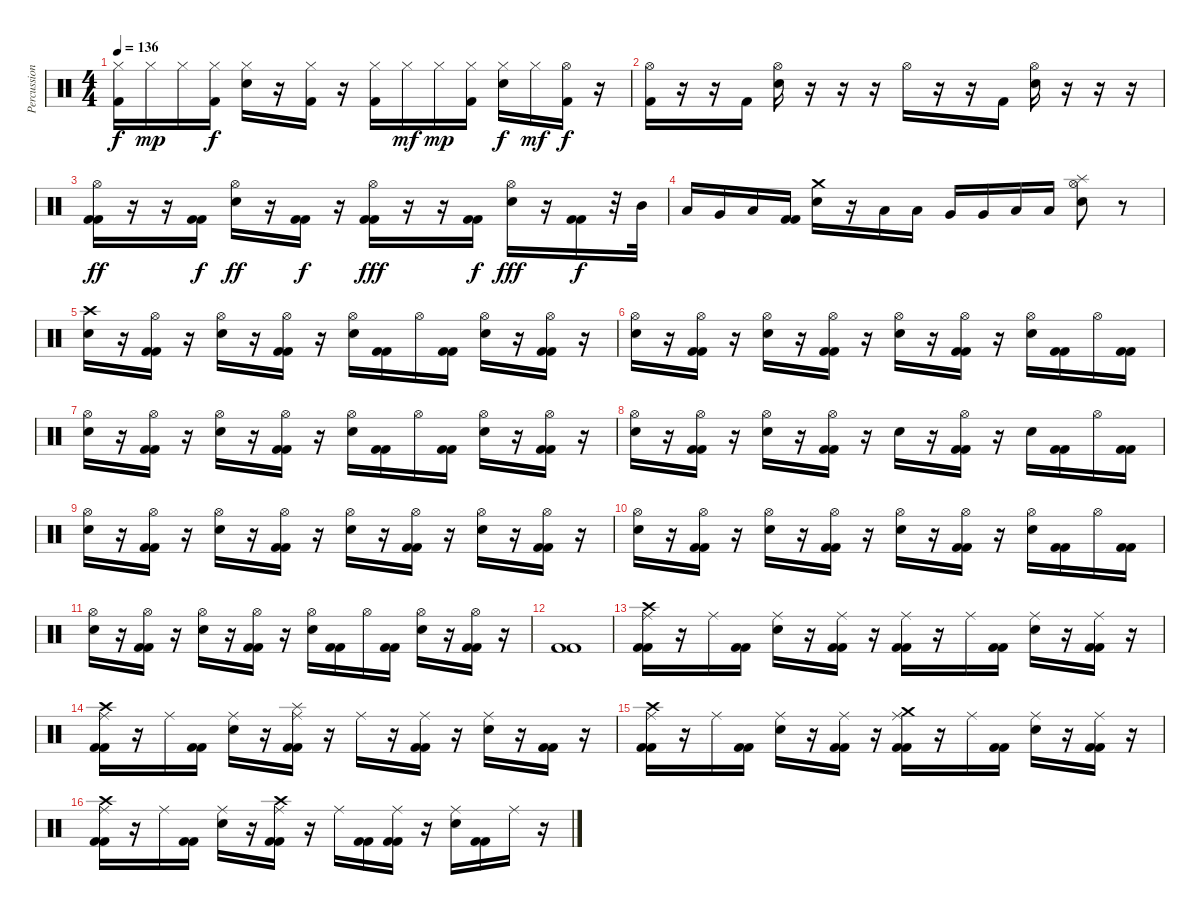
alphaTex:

\track ("Percussion" "Percussion") {instrument percussion}
\staff {score}
\articulation defaults
\ts (4 4)
\tempo 136
\clef neutral
\ks c
("Hi-Hat (closed)" "Kick (hit) 2").16{dy f} "Hi-Hat (closed)".16{dy mp} "Hi-Hat (closed)".16 ("Hi-Hat (closed)" "Kick (hit) 2").16{dy f} ("Hi-Hat (closed)" "Electric Snare (hit)").16 r.16 ("Hi-Hat (closed)" "Kick (hit) 2").16 r.16 ("Hi-Hat (closed)" "Kick (hit) 2").16 "Hi-Hat (closed)".16{dy mf} "Hi-Hat (closed)".16{dy mp} ("Hi-Hat (closed)" "Kick (hit) 2").16 ("Hi-Hat (closed)" "Electric Snare (hit)").16{dy f} "Hi-Hat (closed)".16{dy mf} ("Hi-Hat (open)" "Kick (hit) 2").16{dy f} r.16 |
("Hi-Hat (open)" "Kick (hit) 2").16 r.16 r.16 "Kick (hit) 2".16 ("Hi-Hat (open)" "Electric Snare (hit)").16 r.16 r.16 r.16 "Hi-Hat (open)".16 r.16 r.16 "Kick (hit) 2".16 ("Hi-Hat (open)" "Electric Snare (hit)").16 r.16 r.16 r.16 |
("Hi-Hat (open)" "Kick (hit) 2" "Kick (hit) 2").16{dy ff} r.16 r.16 ("Kick (hit) 2" "Kick (hit) 2").16{dy f} ("Hi-Hat (open)" "Electric Snare (hit)").16{dy ff} r.16 ("Kick (hit) 2" "Kick (hit) 2").16{dy f} r.16 ("Hi-Hat (open)" "Kick (hit) 2" "Kick (hit) 2").16{dy fff} r.16 r.16 ("Kick (hit) 2" "Kick (hit) 2").16{dy f} ("Hi-Hat (open)" "Electric Snare (hit)").16{dy fff} r.16 ("Kick (hit) 2" "Kick (hit) 2").16{dy f} r.32 "Mid Tom (hit)".32 |
"Low Tom (hit)".16 "Very Low Tom (hit)".16 "Low Floor Tom (hit)".16 ("Kick (hit) 2" "Kick (hit) 2").16 ("Crash medium (hit)" "Electric Snare (hit)").16 r.16 "Low Tom (hit)".16 "Low Tom (hit)".16 "Very Low Tom (hit)".16 "Very Low Tom (hit)".16 "Low Floor Tom (hit)".16 "Low Floor Tom (hit)".16 ("Splash (hit)" "Hi-Hat (open)" "Electric Snare (hit)").8 r.8 |
("Crash high (hit)" "Electric Snare (hit)").16 r.16 ("Hi-Hat (open)" "Kick (hit) 2" "Kick (hit) 2").16 r.16 ("Hi-Hat (open)" "Electric Snare (hit)").16 r.16 ("Hi-Hat (open)" "Kick (hit) 2" "Kick (hit) 2").16 r.16 ("Hi-Hat (open)" "Electric Snare (hit)").16 ("Kick (hit) 2" "Kick (hit) 2").16 "Hi-Hat (open)".16 ("Kick (hit) 2" "Kick (hit) 2").16 ("Hi-Hat (open)" "Electric Snare (hit)").16 r.16 ("Hi-Hat (open)" "Kick (hit) 2" "Kick (hit) 2").16 r.16 |
("Hi-Hat (open)" "Electric Snare (hit)").16 r.16 ("Hi-Hat (open)" "Kick (hit) 2" "Kick (hit) 2").16 r.16 ("Hi-Hat (open)" "Electric Snare (hit)").16 r.16 ("Hi-Hat (open)" "Kick (hit) 2" "Kick (hit) 2").16 r.16 ("Hi-Hat (open)" "Electric Snare (hit)").16 r.16 ("Hi-Hat (open)" "Kick (hit) 2" "Kick (hit) 2").16 r.16 ("Hi-Hat (open)" "Electric Snare (hit)").16 ("Kick (hit) 2" "Kick (hit) 2").16 "Hi-Hat (open)".16 ("Kick (hit) 2" "Kick (hit) 2").16 |
("Hi-Hat (open)" "Electric Snare (hit)").16 r.16 ("Hi-Hat (open)" "Kick (hit) 2" "Kick (hit) 2").16 r.16 ("Hi-Hat (open)" "Electric Snare (hit)").16 r.16 ("Hi-Hat (open)" "Kick (hit) 2" "Kick (hit) 2").16 r.16 ("Hi-Hat (open)" "Electric Snare (hit)").16 ("Kick (hit) 2" "Kick (hit) 2").16 "Hi-Hat (open)".16 ("Kick (hit) 2" "Kick (hit) 2").16 ("Hi-Hat (open)" "Electric Snare (hit)").16 r.16 ("Hi-Hat (open)" "Kick (hit) 2" "Kick (hit) 2").16 r.16 |
("Hi-Hat (open)" "Electric Snare (hit)").16 r.16 ("Hi-Hat (open)" "Kick (hit) 2" "Kick (hit) 2").16 r.16 ("Hi-Hat (open)" "Electric Snare (hit)").16 r.16 ("Hi-Hat (open)" "Kick (hit) 2" "Kick (hit) 2").16 r.16 "Electric Snare (hit)".16 r.16 ("Hi-Hat (open)" "Kick (hit) 2" "Kick (hit) 2").16 r.16 "Electric Snare (hit)".16 ("Kick (hit) 2" "Kick (hit) 2").16 "Hi-Hat (open)".16 ("Kick (hit) 2" "Kick (hit) 2").16 |
("Hi-Hat (open)" "Electric Snare (hit)").16 r.16 ("Hi-Hat (open)" "Kick (hit) 2" "Kick (hit) 2").16 r.16 ("Hi-Hat (open)" "Electric Snare (hit)").16 r.16 ("Hi-Hat (open)" "Kick (hit) 2" "Kick (hit) 2").16 r.16 ("Hi-Hat (open)" "Electric Snare (hit)").16 r.16 ("Hi-Hat (open)" "Kick (hit) 2" "Kick (hit) 2").16 r.16 ("Hi-Hat (open)" "Electric Snare (hit)").16 r.16 ("Hi-Hat (open)" "Kick (hit) 2" "Kick (hit) 2").16 r.16 |
("Hi-Hat (open)" "Electric Snare (hit)").16 r.16 ("Hi-Hat (open)" "Kick (hit) 2" "Kick (hit) 2").16 r.16 ("Hi-Hat (open)" "Electric Snare (hit)").16 r.16 ("Hi-Hat (open)" "Kick (hit) 2" "Kick (hit) 2").16 r.16 ("Hi-Hat (open)" "Electric Snare (hit)").16 r.16 ("Hi-Hat (open)" "Kick (hit) 2" "Kick (hit) 2").16 r.16 ("Hi-Hat (open)" "Electric Snare (hit)").16 ("Kick (hit) 2" "Kick (hit) 2").16 "Hi-Hat (open)".16 ("Kick (hit) 2" "Kick (hit) 2").16 |
("Hi-Hat (open)" "Electric Snare (hit)").16 r.16 ("Hi-Hat (open)" "Kick (hit) 2" "Kick (hit) 2").16 r.16 ("Hi-Hat (open)" "Electric Snare (hit)").16 r.16 ("Hi-Hat (open)" "Kick (hit) 2" "Kick (hit) 2").16 r.16 ("Hi-Hat (open)" "Electric Snare (hit)").16 ("Kick (hit) 2" "Kick (hit) 2").16 "Hi-Hat (open)".16 ("Kick (hit) 2" "Kick (hit) 2").16 ("Hi-Hat (open)" "Electric Snare (hit)").16 r.16 ("Hi-Hat (open)" "Kick (hit) 2" "Kick (hit) 2").16 r.16 |
("Kick (hit) 2" "Kick (hit) 2").1 |
("Ride (middle)" "Crash high (hit)" "Kick (hit) 2" "Kick (hit) 2").16 r.16 "Ride (middle)".16 ("Kick (hit) 2" "Kick (hit) 2").16 ("Ride (middle)" "Electric Snare (hit)").16 r.16 ("Ride (middle)" "Kick (hit) 2" "Kick (hit) 2").16 r.16 ("Ride (middle)" "Kick (hit) 2" "Kick (hit) 2").16 r.16 "Ride (middle)".16 ("Kick (hit) 2" "Kick (hit) 2").16 ("Ride (middle)" "Electric Snare (hit)").16 r.16 ("Ride (middle)" "Kick (hit) 2" "Kick (hit) 2").16 r.16 |
("Ride (middle)" "Crash high (hit)" "Kick (hit) 2" "Kick (hit) 2").16 r.16 "Ride (middle)".16 ("Kick (hit) 2" "Kick (hit) 2").16 ("Ride (middle)" "Electric Snare (hit)").16 r.16 ("Ride (middle)" "Splash (hit)" "Kick (hit) 2" "Kick (hit) 2").16 r.16 "Ride (middle)".16 r.16 ("Ride (middle)" "Kick (hit) 2" "Kick (hit) 2").16 r.16 ("Ride (middle)" "Electric Snare (hit)").16 r.16 ("Kick (hit) 2" "Kick (hit) 2").16 r.16 |
("Ride (middle)" "Crash high (hit)" "Kick (hit) 2" "Kick (hit) 2").16 r.16 "Ride (middle)".16 ("Kick (hit) 2" "Kick (hit) 2").16 ("Ride (middle)" "Electric Snare (hit)").16 r.16 ("Ride (middle)" "Kick (hit) 2" "Kick (hit) 2").16 r.16 ("Ride (middle)" "Crash medium (hit)" "Kick (hit) 2" "Kick (hit) 2").16 r.16 "Ride (middle)".16 ("Kick (hit) 2" "Kick (hit) 2").16 ("Ride (middle)" "Electric Snare (hit)").16 r.16 ("Ride (middle)" "Kick (hit) 2" "Kick (hit) 2").16 r.16 |
("Ride (middle)" "Crash high (hit)" "Kick (hit) 2" "Kick (hit) 2").16 r.16 "Ride (middle)".16 ("Kick (hit) 2" "Kick (hit) 2").16 ("Ride (middle)" "Electric Snare (hit)").16 r.16 ("Ride (middle)" "Crash high (hit)" "Kick (hit) 2" "Kick (hit) 2").16 r.16 "Ride (middle)".16 ("Kick (hit) 2" "Kick (hit) 2").16 ("Ride (middle)" "Kick (hit) 2" "Kick (hit) 2").16 r.16 ("Ride (middle)" "Electric Snare (hit)").16 ("Kick (hit) 2" "Kick (hit) 2").16 "Ride (middle)".16 r.16
